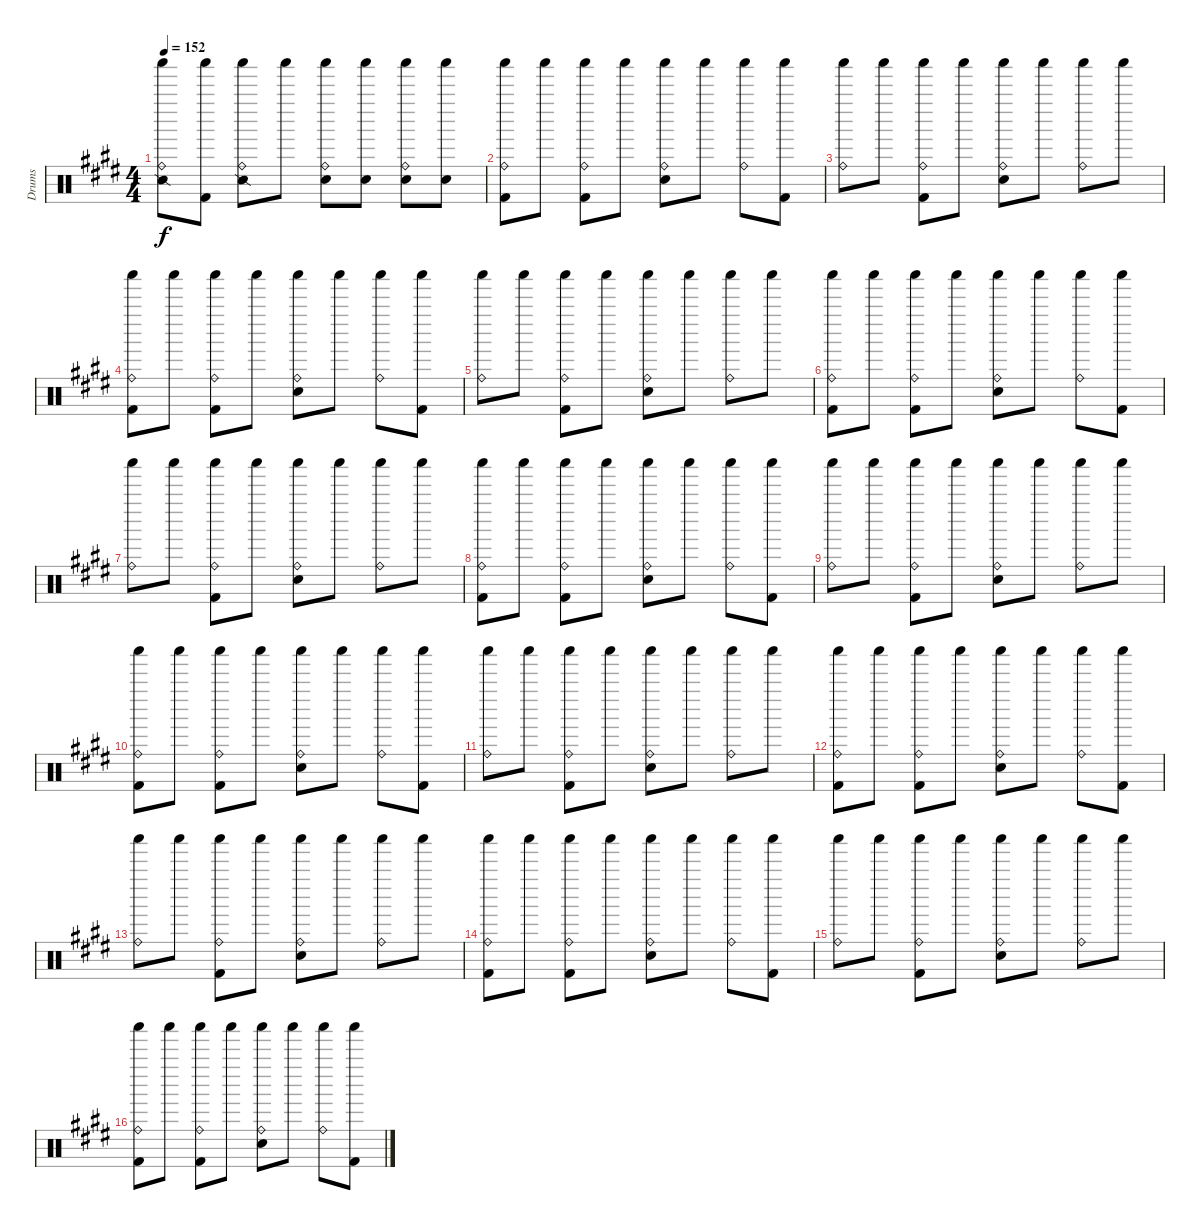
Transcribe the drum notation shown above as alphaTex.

\track ("Drums" "Drums") {instrument percussion}
\staff {score}
\articulation defaults
\ts (4 4)
\tempo 152
\clef neutral
\ks c#minor
("Snare (side stick) 2" "Ride (bell)" "Shaker (hit)").8{dy f} ("Shaker (hit)" "Kick (hit) 2").8 ("Snare (side stick) 2" "Ride (bell)" "Shaker (hit)").8 "Shaker (hit)".8 ("Ride (bell)" "Snare (hit) 2" "Shaker (hit)").8 ("Snare (hit) 2" "Shaker (hit)").8 ("Snare (hit) 2" "Ride (bell)" "Shaker (hit)").8 ("Snare (hit) 2" "Shaker (hit)").8 |
("Ride (bell)" "Kick (hit) 2" "Shaker (hit)").8 "Shaker (hit)".8 ("Ride (bell)" "Kick (hit) 2" "Shaker (hit)").8 "Shaker (hit)".8 ("Ride (bell)" "Snare (hit) 2" "Shaker (hit)").8 "Shaker (hit)".8 ("Ride (bell)" "Shaker (hit)").8 ("Kick (hit) 2" "Shaker (hit)").8 |
("Ride (bell)" "Shaker (hit)").8 "Shaker (hit)".8 ("Ride (bell)" "Kick (hit) 2" "Shaker (hit)").8 "Shaker (hit)".8 ("Ride (bell)" "Snare (hit) 2" "Shaker (hit)").8 "Shaker (hit)".8 ("Ride (bell)" "Shaker (hit)").8 "Shaker (hit)".8 |
("Ride (bell)" "Kick (hit) 2" "Shaker (hit)").8 "Shaker (hit)".8 ("Ride (bell)" "Kick (hit) 2" "Shaker (hit)").8 "Shaker (hit)".8 ("Ride (bell)" "Snare (hit) 2" "Shaker (hit)").8 "Shaker (hit)".8 ("Ride (bell)" "Shaker (hit)").8 ("Kick (hit) 2" "Shaker (hit)").8 |
("Ride (bell)" "Shaker (hit)").8 "Shaker (hit)".8 ("Ride (bell)" "Kick (hit) 2" "Shaker (hit)").8 "Shaker (hit)".8 ("Ride (bell)" "Snare (hit) 2" "Shaker (hit)").8 "Shaker (hit)".8 ("Ride (bell)" "Shaker (hit)").8 "Shaker (hit)".8 |
("Ride (bell)" "Kick (hit) 2" "Shaker (hit)").8 "Shaker (hit)".8 ("Ride (bell)" "Kick (hit) 2" "Shaker (hit)").8 "Shaker (hit)".8 ("Ride (bell)" "Snare (hit) 2" "Shaker (hit)").8 "Shaker (hit)".8 ("Ride (bell)" "Shaker (hit)").8 ("Kick (hit) 2" "Shaker (hit)").8 |
("Ride (bell)" "Shaker (hit)").8 "Shaker (hit)".8 ("Ride (bell)" "Kick (hit) 2" "Shaker (hit)").8 "Shaker (hit)".8 ("Ride (bell)" "Snare (hit) 2" "Shaker (hit)").8 "Shaker (hit)".8 ("Ride (bell)" "Shaker (hit)").8 "Shaker (hit)".8 |
("Ride (bell)" "Kick (hit) 2" "Shaker (hit)").8 "Shaker (hit)".8 ("Ride (bell)" "Kick (hit) 2" "Shaker (hit)").8 "Shaker (hit)".8 ("Ride (bell)" "Snare (hit) 2" "Shaker (hit)").8 "Shaker (hit)".8 ("Ride (bell)" "Shaker (hit)").8 ("Kick (hit) 2" "Shaker (hit)").8 |
("Ride (bell)" "Shaker (hit)").8 "Shaker (hit)".8 ("Ride (bell)" "Kick (hit) 2" "Shaker (hit)").8 "Shaker (hit)".8 ("Ride (bell)" "Snare (hit) 2" "Shaker (hit)").8 "Shaker (hit)".8 ("Ride (bell)" "Shaker (hit)").8 "Shaker (hit)".8 |
("Ride (bell)" "Kick (hit) 2" "Shaker (hit)").8 "Shaker (hit)".8 ("Ride (bell)" "Kick (hit) 2" "Shaker (hit)").8 "Shaker (hit)".8 ("Ride (bell)" "Snare (hit) 2" "Shaker (hit)").8 "Shaker (hit)".8 ("Ride (bell)" "Shaker (hit)").8 ("Kick (hit) 2" "Shaker (hit)").8 |
("Ride (bell)" "Shaker (hit)").8 "Shaker (hit)".8 ("Ride (bell)" "Kick (hit) 2" "Shaker (hit)").8 "Shaker (hit)".8 ("Ride (bell)" "Snare (hit) 2" "Shaker (hit)").8 "Shaker (hit)".8 ("Ride (bell)" "Shaker (hit)").8 "Shaker (hit)".8 |
("Ride (bell)" "Kick (hit) 2" "Shaker (hit)").8 "Shaker (hit)".8 ("Ride (bell)" "Kick (hit) 2" "Shaker (hit)").8 "Shaker (hit)".8 ("Ride (bell)" "Snare (hit) 2" "Shaker (hit)").8 "Shaker (hit)".8 ("Ride (bell)" "Shaker (hit)").8 ("Kick (hit) 2" "Shaker (hit)").8 |
("Ride (bell)" "Shaker (hit)").8 "Shaker (hit)".8 ("Ride (bell)" "Kick (hit) 2" "Shaker (hit)").8 "Shaker (hit)".8 ("Ride (bell)" "Snare (hit) 2" "Shaker (hit)").8 "Shaker (hit)".8 ("Ride (bell)" "Shaker (hit)").8 "Shaker (hit)".8 |
("Ride (bell)" "Kick (hit) 2" "Shaker (hit)").8 "Shaker (hit)".8 ("Ride (bell)" "Kick (hit) 2" "Shaker (hit)").8 "Shaker (hit)".8 ("Ride (bell)" "Snare (hit) 2" "Shaker (hit)").8 "Shaker (hit)".8 ("Ride (bell)" "Shaker (hit)").8 ("Kick (hit) 2" "Shaker (hit)").8 |
("Ride (bell)" "Shaker (hit)").8 "Shaker (hit)".8 ("Ride (bell)" "Kick (hit) 2" "Shaker (hit)").8 "Shaker (hit)".8 ("Ride (bell)" "Snare (hit) 2" "Shaker (hit)").8 "Shaker (hit)".8 ("Ride (bell)" "Shaker (hit)").8 "Shaker (hit)".8 |
("Ride (bell)" "Kick (hit) 2" "Shaker (hit)").8 "Shaker (hit)".8 ("Ride (bell)" "Kick (hit) 2" "Shaker (hit)").8 "Shaker (hit)".8 ("Ride (bell)" "Snare (hit) 2" "Shaker (hit)").8 "Shaker (hit)".8 ("Ride (bell)" "Shaker (hit)").8 ("Kick (hit) 2" "Shaker (hit)").8
